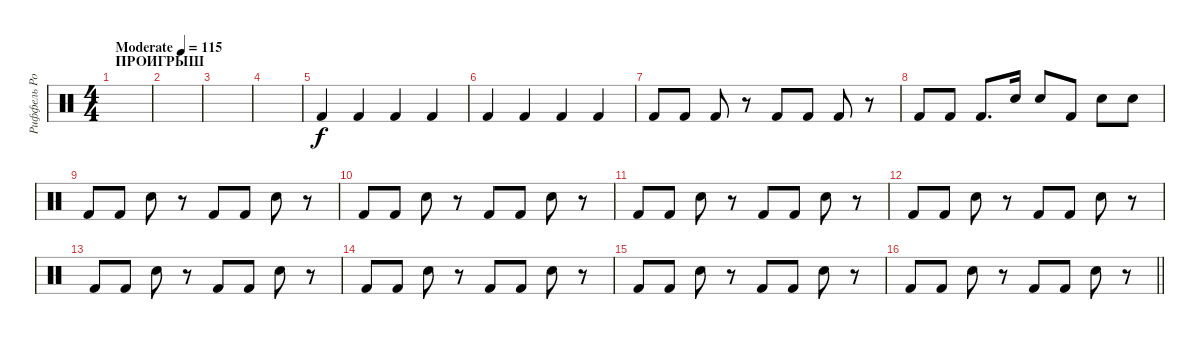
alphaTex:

\track ("Риффель Роман (главные)" "Риффель Ро") {instrument percussion}
\staff {score}
\articulation defaults
\ts (4 4)
\section ("" "ПРОИГРЫШ")
\tempo (115 "Moderate")
\clef neutral
\ks c
|
|
|
|
"Kick (hit) 2".4 "Kick (hit) 2".4 "Kick (hit) 2".4 "Kick (hit) 2".4 |
"Kick (hit) 2".4 "Kick (hit) 2".4 "Kick (hit) 2".4 "Kick (hit) 2".4 |
"Kick (hit) 2".8 "Kick (hit) 2".8 "Kick (hit) 2".8 r.8 "Kick (hit) 2".8 "Kick (hit) 2".8 "Kick (hit) 2".8 r.8 |
"Kick (hit) 2".8 "Kick (hit) 2".8 "Kick (hit) 2".8{d} "Electric Snare (hit)".16 "Electric Snare (hit)".8 "Kick (hit) 2".8 "Electric Snare (hit)".8 "Electric Snare (hit)".8 |
"Kick (hit) 2".8 "Kick (hit) 2".8 "Electric Snare (hit)".8 r.8 "Kick (hit) 2".8 "Kick (hit) 2".8 "Electric Snare (hit)".8 r.8 |
"Kick (hit) 2".8 "Kick (hit) 2".8 "Electric Snare (hit)".8 r.8 "Kick (hit) 2".8 "Kick (hit) 2".8 "Electric Snare (hit)".8 r.8 |
"Kick (hit) 2".8 "Kick (hit) 2".8 "Electric Snare (hit)".8 r.8 "Kick (hit) 2".8 "Kick (hit) 2".8 "Electric Snare (hit)".8 r.8 |
"Kick (hit) 2".8 "Kick (hit) 2".8 "Electric Snare (hit)".8 r.8 "Kick (hit) 2".8 "Kick (hit) 2".8 "Electric Snare (hit)".8 r.8 |
"Kick (hit) 2".8 "Kick (hit) 2".8 "Electric Snare (hit)".8 r.8 "Kick (hit) 2".8 "Kick (hit) 2".8 "Electric Snare (hit)".8 r.8 |
"Kick (hit) 2".8 "Kick (hit) 2".8 "Electric Snare (hit)".8 r.8 "Kick (hit) 2".8 "Kick (hit) 2".8 "Electric Snare (hit)".8 r.8 |
"Kick (hit) 2".8 "Kick (hit) 2".8 "Electric Snare (hit)".8 r.8 "Kick (hit) 2".8 "Kick (hit) 2".8 "Electric Snare (hit)".8 r.8 |
\barLineRight lightlight "Kick (hit) 2".8 "Kick (hit) 2".8 "Electric Snare (hit)".8
r.8 "Kick (hit) 2".8 "Kick (hit) 2".8 "Electric Snare (hit)".8 r.8
